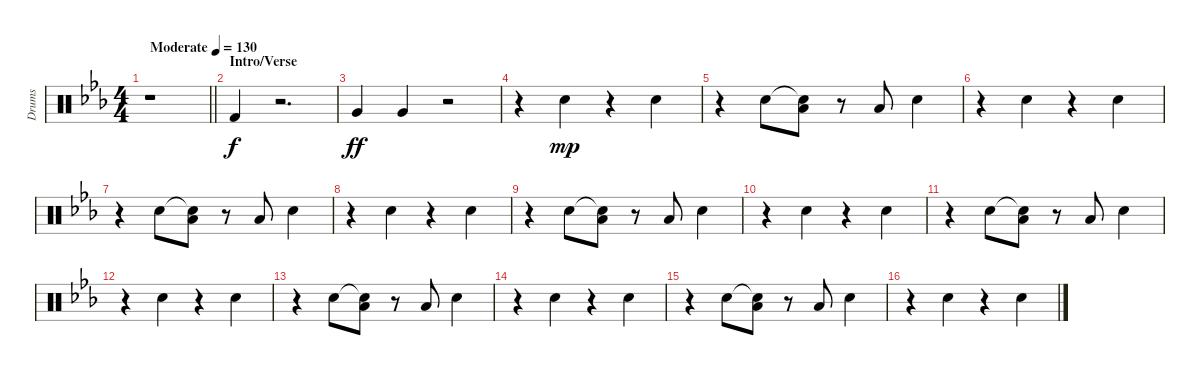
\track ("Drums" "Drums") {instrument percussion}
\staff {score}
\articulation defaults
\ts (4 4)
\tempo (130 "Moderate")
\clef neutral
\barLineRight lightlight
\ks eb
r.1{dy f} |
\section ("" "Intro/Verse")
"Kick (hit) 2".4 r.2{d} |
"Very Low Tom (hit)".4{dy ff} "Very Low Tom (hit)".4 r.2 |
r.4 "Hand Clap (hit)".4{dy mp} r.4 "Hand Clap (hit)".4 |
r.4 "Hand Clap (hit)".8 ("Hand Clap (hit)"{t} "Low Tom (hit)").8 r.8 "Low Tom (hit)".8 "Hand Clap (hit)".4 |
r.4 "Hand Clap (hit)".4 r.4 "Hand Clap (hit)".4 |
r.4 "Hand Clap (hit)".8 ("Hand Clap (hit)"{t} "Low Tom (hit)").8 r.8 "Low Tom (hit)".8 "Hand Clap (hit)".4 |
r.4 "Hand Clap (hit)".4 r.4 "Hand Clap (hit)".4 |
r.4 "Hand Clap (hit)".8 ("Hand Clap (hit)"{t} "Low Tom (hit)").8 r.8 "Low Tom (hit)".8 "Hand Clap (hit)".4 |
r.4 "Hand Clap (hit)".4 r.4 "Hand Clap (hit)".4 |
r.4 "Hand Clap (hit)".8 ("Hand Clap (hit)"{t} "Low Tom (hit)").8 r.8 "Low Tom (hit)".8 "Hand Clap (hit)".4 |
r.4 "Hand Clap (hit)".4 r.4 "Hand Clap (hit)".4 |
r.4 "Hand Clap (hit)".8 ("Hand Clap (hit)"{t} "Low Tom (hit)").8 r.8 "Low Tom (hit)".8 "Hand Clap (hit)".4 |
r.4 "Hand Clap (hit)".4 r.4 "Hand Clap (hit)".4 |
r.4 "Hand Clap (hit)".8 ("Hand Clap (hit)"{t} "Low Tom (hit)").8 r.8 "Low Tom (hit)".8 "Hand Clap (hit)".4 |
r.4 "Hand Clap (hit)".4 r.4 "Hand Clap (hit)".4
